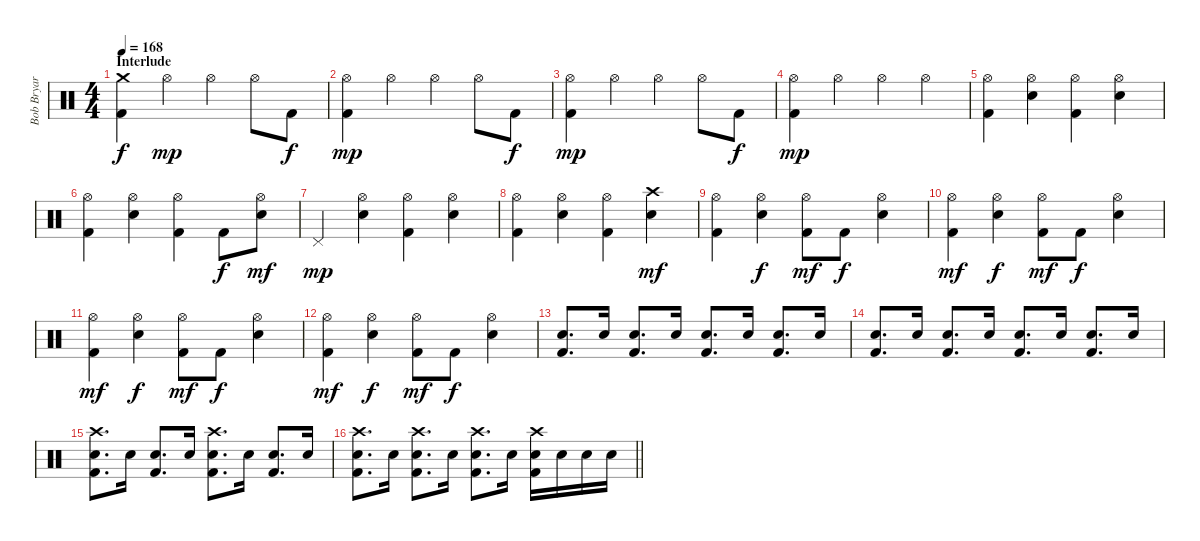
\track ("Bob Bryar" "Bob Bryar") {instrument percussion}
\staff {score}
\articulation defaults
\ts (4 4)
\section ("" "Interlude")
\tempo 168
\clef neutral
\ks c
("Crash medium (hit)" "Kick (hit) 2").4{dy f volume 14} "Hi-Hat (open)".4{dy mp} "Hi-Hat (open)".4 "Hi-Hat (open)".8 "Kick (hit) 2".8{dy f} |
("Hi-Hat (open)" "Kick (hit) 2").4{dy mp} "Hi-Hat (open)".4 "Hi-Hat (open)".4 "Hi-Hat (open)".8 "Kick (hit) 2".8{dy f} |
("Hi-Hat (open)" "Kick (hit) 2").4{dy mp} "Hi-Hat (open)".4 "Hi-Hat (open)".4 "Hi-Hat (open)".8 "Kick (hit) 2".8{dy f} |
("Hi-Hat (open)" "Kick (hit) 2").4{dy mp} "Hi-Hat (open)".4 "Hi-Hat (open)".4 "Hi-Hat (open)".4 |
("Hi-Hat (open)" "Kick (hit) 2").4 ("Hi-Hat (open)" "Electric Snare (hit)").4 ("Hi-Hat (open)" "Kick (hit) 2").4 ("Hi-Hat (open)" "Electric Snare (hit)").4 |
("Hi-Hat (open)" "Kick (hit) 2").4 ("Hi-Hat (open)" "Electric Snare (hit)").4 ("Hi-Hat (open)" "Kick (hit) 2").4 "Kick (hit) 2".8{dy f} ("Hi-Hat (open)" "Electric Snare (hit)").8{dy mf} |
"Pedal Hi-Hat (hit)".4{dy mp} ("Hi-Hat (open)" "Electric Snare (hit)").4 ("Hi-Hat (open)" "Kick (hit) 2").4 ("Hi-Hat (open)" "Electric Snare (hit)").4 |
("Hi-Hat (open)" "Kick (hit) 2").4 ("Hi-Hat (open)" "Electric Snare (hit)").4 ("Hi-Hat (open)" "Kick (hit) 2").4 ("Crash high (hit)" "Electric Snare (hit)").4{dy mf} |
("Hi-Hat (open)" "Kick (hit) 2").4 ("Hi-Hat (open)" "Electric Snare (hit)").4{dy f} ("Hi-Hat (open)" "Kick (hit) 2").8{dy mf} "Kick (hit) 2".8{dy f} ("Hi-Hat (open)" "Electric Snare (hit)").4 |
("Hi-Hat (open)" "Kick (hit) 2").4{dy mf} ("Hi-Hat (open)" "Electric Snare (hit)").4{dy f} ("Hi-Hat (open)" "Kick (hit) 2").8{dy mf} "Kick (hit) 2".8{dy f} ("Hi-Hat (open)" "Electric Snare (hit)").4 |
("Hi-Hat (open)" "Kick (hit) 2").4{dy mf} ("Hi-Hat (open)" "Electric Snare (hit)").4{dy f} ("Hi-Hat (open)" "Kick (hit) 2").8{dy mf} "Kick (hit) 2".8{dy f} ("Hi-Hat (open)" "Electric Snare (hit)").4 |
("Hi-Hat (open)" "Kick (hit) 2").4{dy mf} ("Hi-Hat (open)" "Electric Snare (hit)").4{dy f} ("Hi-Hat (open)" "Kick (hit) 2").8{dy mf} "Kick (hit) 2".8{dy f} ("Hi-Hat (open)" "Electric Snare (hit)").4 |
("Electric Snare (hit)" "Kick (hit) 2").8{d} "Electric Snare (hit)".16 ("Electric Snare (hit)" "Kick (hit) 2").8{d} "Electric Snare (hit)".16 ("Electric Snare (hit)" "Kick (hit) 2").8{d} "Electric Snare (hit)".16 ("Electric Snare (hit)" "Kick (hit) 2").8{d} "Electric Snare (hit)".16 |
("Electric Snare (hit)" "Kick (hit) 2").8{d} "Electric Snare (hit)".16 ("Electric Snare (hit)" "Kick (hit) 2").8{d} "Electric Snare (hit)".16 ("Electric Snare (hit)" "Kick (hit) 2").8{d} "Electric Snare (hit)".16 ("Electric Snare (hit)" "Kick (hit) 2").8{d} "Electric Snare (hit)".16 |
("Crash high (hit)" "Electric Snare (hit)" "Kick (hit) 2").8{d} "Electric Snare (hit)".16 ("Electric Snare (hit)" "Kick (hit) 2").8{d} "Electric Snare (hit)".16 ("Crash high (hit)" "Electric Snare (hit)" "Kick (hit) 2").8{d} "Electric Snare (hit)".16 ("Electric Snare (hit)" "Kick (hit) 2").8{d} "Electric Snare (hit)".16 |
\barLineRight lightlight
("Crash high (hit)" "Electric Snare (hit)" "Kick (hit) 2").8{d} "Electric Snare (hit)".16 ("Crash high (hit)" "Electric Snare (hit)" "Kick (hit) 2").8{d} "Electric Snare (hit)".16 ("Crash high (hit)" "Electric Snare (hit)" "Kick (hit) 2").8{d} "Electric Snare (hit)".16 ("Crash high (hit)" "Electric Snare (hit)" "Kick (hit) 2").16 "Electric Snare (hit)".16 "Electric Snare (hit)".16 "Electric Snare (hit)".16
